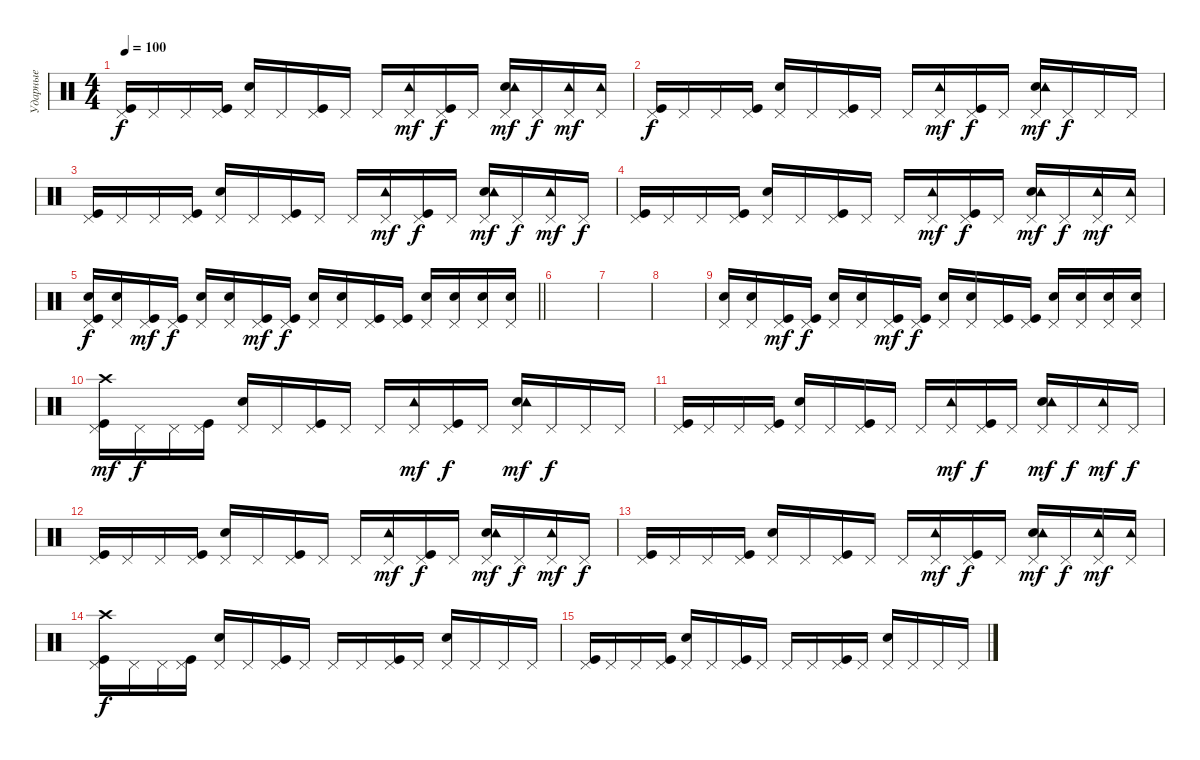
\track ("Ударные" "Ударные") {instrument percussion}
\staff {score}
\articulation defaults
\ts (4 4)
\tempo 100
\clef neutral
\ks c
("Kick (hit)" "Pedal Hi-Hat (hit)").16{dy f} "Pedal Hi-Hat (hit)".16 "Pedal Hi-Hat (hit)".16 ("Kick (hit)" "Pedal Hi-Hat (hit)").16 ("Pedal Hi-Hat (hit)" "Electric Snare (hit)").16 "Pedal Hi-Hat (hit)".16 ("Kick (hit)" "Pedal Hi-Hat (hit)").16 "Pedal Hi-Hat (hit)".16 "Pedal Hi-Hat (hit)".16 ("Pedal Hi-Hat (hit)" "Tambourine (hit)").16{dy mf} ("Kick (hit)" "Pedal Hi-Hat (hit)").16{dy f} "Pedal Hi-Hat (hit)".16 ("Pedal Hi-Hat (hit)" "Electric Snare (hit)" "Tambourine (hit)").16{dy mf} "Pedal Hi-Hat (hit)".16{dy f} ("Pedal Hi-Hat (hit)" "Tambourine (hit)").16{dy mf} ("Pedal Hi-Hat (hit)" "Tambourine (hit)").16 |
("Kick (hit)" "Pedal Hi-Hat (hit)").16{dy f} "Pedal Hi-Hat (hit)".16 "Pedal Hi-Hat (hit)".16 ("Kick (hit)" "Pedal Hi-Hat (hit)").16 ("Pedal Hi-Hat (hit)" "Electric Snare (hit)").16 "Pedal Hi-Hat (hit)".16 ("Kick (hit)" "Pedal Hi-Hat (hit)").16 "Pedal Hi-Hat (hit)".16 "Pedal Hi-Hat (hit)".16 ("Pedal Hi-Hat (hit)" "Tambourine (hit)").16{dy mf} ("Kick (hit)" "Pedal Hi-Hat (hit)").16{dy f} "Pedal Hi-Hat (hit)".16 ("Pedal Hi-Hat (hit)" "Electric Snare (hit)" "Tambourine (hit)").16{dy mf} "Pedal Hi-Hat (hit)".16{dy f} "Pedal Hi-Hat (hit)".16 "Pedal Hi-Hat (hit)".16 |
("Kick (hit)" "Pedal Hi-Hat (hit)").16 "Pedal Hi-Hat (hit)".16 "Pedal Hi-Hat (hit)".16 ("Kick (hit)" "Pedal Hi-Hat (hit)").16 ("Pedal Hi-Hat (hit)" "Electric Snare (hit)").16 "Pedal Hi-Hat (hit)".16 ("Kick (hit)" "Pedal Hi-Hat (hit)").16 "Pedal Hi-Hat (hit)".16 "Pedal Hi-Hat (hit)".16 ("Pedal Hi-Hat (hit)" "Tambourine (hit)").16{dy mf} ("Kick (hit)" "Pedal Hi-Hat (hit)").16{dy f} "Pedal Hi-Hat (hit)".16 ("Pedal Hi-Hat (hit)" "Electric Snare (hit)" "Tambourine (hit)").16{dy mf} "Pedal Hi-Hat (hit)".16{dy f} ("Pedal Hi-Hat (hit)" "Tambourine (hit)").16{dy mf} "Pedal Hi-Hat (hit)".16{dy f} |
("Kick (hit)" "Pedal Hi-Hat (hit)").16 "Pedal Hi-Hat (hit)".16 "Pedal Hi-Hat (hit)".16 ("Kick (hit)" "Pedal Hi-Hat (hit)").16 ("Pedal Hi-Hat (hit)" "Electric Snare (hit)").16 "Pedal Hi-Hat (hit)".16 ("Kick (hit)" "Pedal Hi-Hat (hit)").16 "Pedal Hi-Hat (hit)".16 "Pedal Hi-Hat (hit)".16 ("Pedal Hi-Hat (hit)" "Tambourine (hit)").16{dy mf} ("Kick (hit)" "Pedal Hi-Hat (hit)").16{dy f} "Pedal Hi-Hat (hit)".16 ("Pedal Hi-Hat (hit)" "Electric Snare (hit)" "Tambourine (hit)").16{dy mf} "Pedal Hi-Hat (hit)".16{dy f} ("Pedal Hi-Hat (hit)" "Tambourine (hit)").16{dy mf} ("Pedal Hi-Hat (hit)" "Tambourine (hit)").16 |
\barLineRight lightlight
("Kick (hit)" "Pedal Hi-Hat (hit)" "Electric Snare (hit)").16{dy f} ("Pedal Hi-Hat (hit)" "Electric Snare (hit)").16 ("Kick (hit)" "Pedal Hi-Hat (hit)").16{dy mf} ("Kick (hit)" "Pedal Hi-Hat (hit)").16{dy f} ("Pedal Hi-Hat (hit)" "Electric Snare (hit)").16 ("Electric Snare (hit)" "Pedal Hi-Hat (hit)").16 ("Kick (hit)" "Pedal Hi-Hat (hit)").16{dy mf} ("Kick (hit)" "Pedal Hi-Hat (hit)").16{dy f} ("Electric Snare (hit)" "Pedal Hi-Hat (hit)").16 ("Electric Snare (hit)" "Pedal Hi-Hat (hit)").16 ("Pedal Hi-Hat (hit)" "Kick (hit)").16 ("Pedal Hi-Hat (hit)" "Kick (hit)").16 ("Electric Snare (hit)" "Pedal Hi-Hat (hit)").16 ("Electric Snare (hit)" "Pedal Hi-Hat (hit)").16 ("Electric Snare (hit)" "Pedal Hi-Hat (hit)").16 ("Electric Snare (hit)" "Pedal Hi-Hat (hit)").16 |
|
|
|
("Pedal Hi-Hat (hit)" "Electric Snare (hit)").16 ("Pedal Hi-Hat (hit)" "Electric Snare (hit)").16 ("Kick (hit)" "Pedal Hi-Hat (hit)").16{dy mf} ("Kick (hit)" "Pedal Hi-Hat (hit)").16{dy f} ("Pedal Hi-Hat (hit)" "Electric Snare (hit)").16 ("Electric Snare (hit)" "Pedal Hi-Hat (hit)").16 ("Kick (hit)" "Pedal Hi-Hat (hit)").16{dy mf} ("Kick (hit)" "Pedal Hi-Hat (hit)").16{dy f} ("Electric Snare (hit)" "Pedal Hi-Hat (hit)").16 ("Electric Snare (hit)" "Pedal Hi-Hat (hit)").16 ("Pedal Hi-Hat (hit)" "Kick (hit)").16 ("Pedal Hi-Hat (hit)" "Kick (hit)").16 ("Electric Snare (hit)" "Pedal Hi-Hat (hit)").16 ("Electric Snare (hit)" "Pedal Hi-Hat (hit)").16 ("Electric Snare (hit)" "Pedal Hi-Hat (hit)").16 ("Electric Snare (hit)" "Pedal Hi-Hat (hit)").16 |
("Kick (hit)" "Pedal Hi-Hat (hit)" "Crash high (hit)").16{dy mf} "Pedal Hi-Hat (hit)".16{dy f} "Pedal Hi-Hat (hit)".16 ("Kick (hit)" "Pedal Hi-Hat (hit)").16 ("Pedal Hi-Hat (hit)" "Electric Snare (hit)").16 "Pedal Hi-Hat (hit)".16 ("Kick (hit)" "Pedal Hi-Hat (hit)").16 "Pedal Hi-Hat (hit)".16 "Pedal Hi-Hat (hit)".16 ("Pedal Hi-Hat (hit)" "Tambourine (hit)").16{dy mf} ("Kick (hit)" "Pedal Hi-Hat (hit)").16{dy f} "Pedal Hi-Hat (hit)".16 ("Pedal Hi-Hat (hit)" "Electric Snare (hit)" "Tambourine (hit)").16{dy mf} "Pedal Hi-Hat (hit)".16{dy f} "Pedal Hi-Hat (hit)".16 "Pedal Hi-Hat (hit)".16 |
("Kick (hit)" "Pedal Hi-Hat (hit)").16 "Pedal Hi-Hat (hit)".16 "Pedal Hi-Hat (hit)".16 ("Kick (hit)" "Pedal Hi-Hat (hit)").16 ("Pedal Hi-Hat (hit)" "Electric Snare (hit)").16 "Pedal Hi-Hat (hit)".16 ("Kick (hit)" "Pedal Hi-Hat (hit)").16 "Pedal Hi-Hat (hit)".16 "Pedal Hi-Hat (hit)".16 ("Pedal Hi-Hat (hit)" "Tambourine (hit)").16{dy mf} ("Kick (hit)" "Pedal Hi-Hat (hit)").16{dy f} "Pedal Hi-Hat (hit)".16 ("Pedal Hi-Hat (hit)" "Electric Snare (hit)" "Tambourine (hit)").16{dy mf} "Pedal Hi-Hat (hit)".16{dy f} ("Pedal Hi-Hat (hit)" "Tambourine (hit)").16{dy mf} "Pedal Hi-Hat (hit)".16{dy f} |
("Kick (hit)" "Pedal Hi-Hat (hit)").16 "Pedal Hi-Hat (hit)".16 "Pedal Hi-Hat (hit)".16 ("Kick (hit)" "Pedal Hi-Hat (hit)").16 ("Pedal Hi-Hat (hit)" "Electric Snare (hit)").16 "Pedal Hi-Hat (hit)".16 ("Kick (hit)" "Pedal Hi-Hat (hit)").16 "Pedal Hi-Hat (hit)".16 "Pedal Hi-Hat (hit)".16 ("Pedal Hi-Hat (hit)" "Tambourine (hit)").16{dy mf} ("Kick (hit)" "Pedal Hi-Hat (hit)").16{dy f} "Pedal Hi-Hat (hit)".16 ("Pedal Hi-Hat (hit)" "Electric Snare (hit)" "Tambourine (hit)").16{dy mf} "Pedal Hi-Hat (hit)".16{dy f} ("Pedal Hi-Hat (hit)" "Tambourine (hit)").16{dy mf} "Pedal Hi-Hat (hit)".16{dy f} |
("Kick (hit)" "Pedal Hi-Hat (hit)").16 "Pedal Hi-Hat (hit)".16 "Pedal Hi-Hat (hit)".16 ("Kick (hit)" "Pedal Hi-Hat (hit)").16 ("Pedal Hi-Hat (hit)" "Electric Snare (hit)").16 "Pedal Hi-Hat (hit)".16 ("Kick (hit)" "Pedal Hi-Hat (hit)").16 "Pedal Hi-Hat (hit)".16 "Pedal Hi-Hat (hit)".16 ("Pedal Hi-Hat (hit)" "Tambourine (hit)").16{dy mf} ("Kick (hit)" "Pedal Hi-Hat (hit)").16{dy f} "Pedal Hi-Hat (hit)".16 ("Pedal Hi-Hat (hit)" "Electric Snare (hit)" "Tambourine (hit)").16{dy mf} "Pedal Hi-Hat (hit)".16{dy f} ("Pedal Hi-Hat (hit)" "Tambourine (hit)").16{dy mf} ("Pedal Hi-Hat (hit)" "Tambourine (hit)").16 |
("Kick (hit)" "Pedal Hi-Hat (hit)" "Crash high (hit)").16{dy f} "Pedal Hi-Hat (hit)".16 "Pedal Hi-Hat (hit)".16 ("Kick (hit)" "Pedal Hi-Hat (hit)").16 ("Pedal Hi-Hat (hit)" "Electric Snare (hit)").16 "Pedal Hi-Hat (hit)".16 ("Kick (hit)" "Pedal Hi-Hat (hit)").16 "Pedal Hi-Hat (hit)".16 "Pedal Hi-Hat (hit)".16 "Pedal Hi-Hat (hit)".16 ("Kick (hit)" "Pedal Hi-Hat (hit)").16 "Pedal Hi-Hat (hit)".16 ("Pedal Hi-Hat (hit)" "Electric Snare (hit)").16 "Pedal Hi-Hat (hit)".16 "Pedal Hi-Hat (hit)".16 "Pedal Hi-Hat (hit)".16 |
("Kick (hit)" "Pedal Hi-Hat (hit)").16 "Pedal Hi-Hat (hit)".16 "Pedal Hi-Hat (hit)".16 ("Kick (hit)" "Pedal Hi-Hat (hit)").16 ("Pedal Hi-Hat (hit)" "Electric Snare (hit)").16 "Pedal Hi-Hat (hit)".16 ("Kick (hit)" "Pedal Hi-Hat (hit)").16 "Pedal Hi-Hat (hit)".16 "Pedal Hi-Hat (hit)".16 "Pedal Hi-Hat (hit)".16 ("Kick (hit)" "Pedal Hi-Hat (hit)").16 "Pedal Hi-Hat (hit)".16 ("Pedal Hi-Hat (hit)" "Electric Snare (hit)").16 "Pedal Hi-Hat (hit)".16 "Pedal Hi-Hat (hit)".16 "Pedal Hi-Hat (hit)".16
